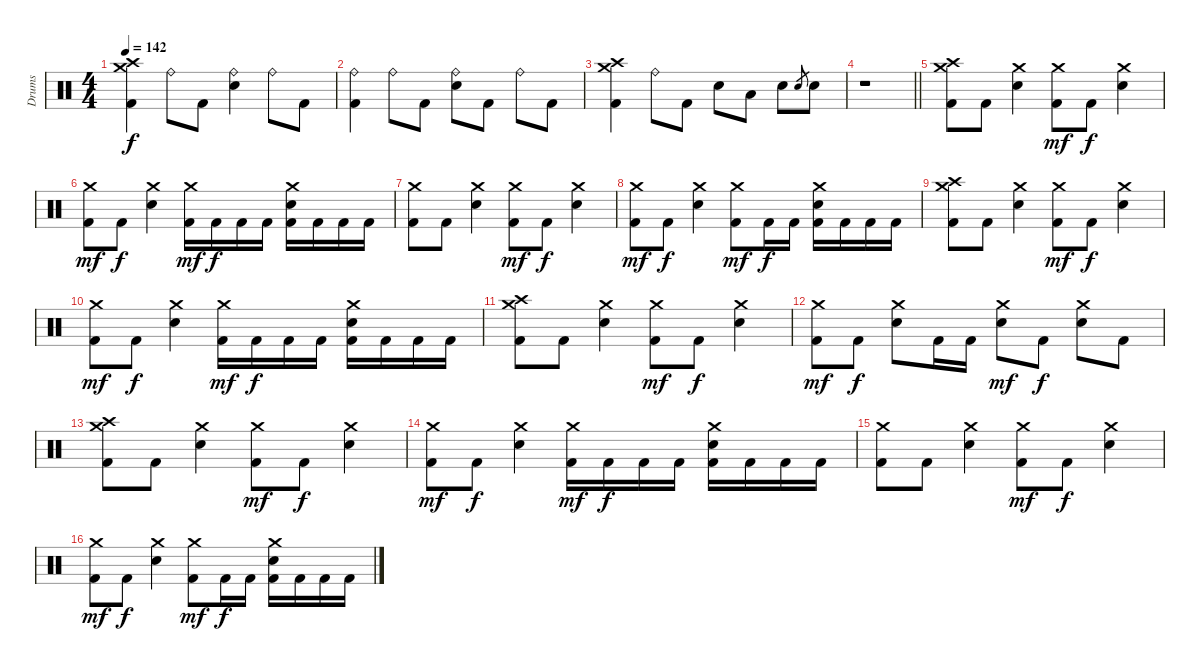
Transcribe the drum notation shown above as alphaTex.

\track ("Drums" "Drums") {instrument percussion}
\staff {score}
\articulation defaults
\ts (4 4)
\tempo 142
\clef neutral
\ks c
("Crash high (hit)" "Crash medium (hit)" "Kick (hit) 2").4{dy f} "Ride (bell)".8 "Kick (hit) 2".8 ("Ride (bell)" "Electric Snare (hit)").4 "Ride (bell)".8 "Kick (hit) 2".8 |
("Ride (bell)" "Kick (hit) 2").4 "Ride (bell)".8 "Kick (hit) 2".8 ("Ride (bell)" "Electric Snare (hit)").8 "Kick (hit) 2".8 "Ride (bell)".8 "Kick (hit) 2".8 |
("Crash high (hit)" "Crash medium (hit)" "Kick (hit) 2").4 "Ride (bell)".8 "Kick (hit) 2".8 "Electric Snare (hit)".8 "Low Tom (hit)".8 "Electric Snare (hit)".8 "Electric Snare (hit)".8{gr} "Electric Snare (hit)".8 |
\barLineRight lightlight
r.1 |
("Crash medium (hit)" "Crash high (hit)" "Kick (hit) 2").8 "Kick (hit) 2".8 ("Crash medium (hit)" "Electric Snare (hit)").4 ("Crash medium (hit)" "Kick (hit) 2").8{dy mf} "Kick (hit) 2".8{dy f} ("Crash medium (hit)" "Electric Snare (hit)").4 |
("Crash medium (hit)" "Kick (hit) 2").8{dy mf} "Kick (hit) 2".8{dy f} ("Crash medium (hit)" "Electric Snare (hit)").4 ("Crash medium (hit)" "Kick (hit) 2").16{dy mf} "Kick (hit) 2".16{dy f} "Kick (hit) 2".16 "Kick (hit) 2".16 ("Crash medium (hit)" "Electric Snare (hit)" "Kick (hit) 2").16 "Kick (hit) 2".16 "Kick (hit) 2".16 "Kick (hit) 2".16 |
("Crash medium (hit)" "Kick (hit) 2").8 "Kick (hit) 2".8 ("Crash medium (hit)" "Electric Snare (hit)").4 ("Crash medium (hit)" "Kick (hit) 2").8{dy mf} "Kick (hit) 2".8{dy f} ("Crash medium (hit)" "Electric Snare (hit)").4 |
("Crash medium (hit)" "Kick (hit) 2").8{dy mf} "Kick (hit) 2".8{dy f} ("Crash medium (hit)" "Electric Snare (hit)").4 ("Crash medium (hit)" "Kick (hit) 2").8{dy mf} "Kick (hit) 2".16{dy f} "Kick (hit) 2".16 ("Crash medium (hit)" "Electric Snare (hit)" "Kick (hit) 2").16 "Kick (hit) 2".16 "Kick (hit) 2".16 "Kick (hit) 2".16 |
("Crash medium (hit)" "Crash high (hit)" "Kick (hit) 2").8 "Kick (hit) 2".8 ("Crash medium (hit)" "Electric Snare (hit)").4 ("Crash medium (hit)" "Kick (hit) 2").8{dy mf} "Kick (hit) 2".8{dy f} ("Crash medium (hit)" "Electric Snare (hit)").4 |
("Crash medium (hit)" "Kick (hit) 2").8{dy mf} "Kick (hit) 2".8{dy f} ("Crash medium (hit)" "Electric Snare (hit)").4 ("Crash medium (hit)" "Kick (hit) 2").16{dy mf} "Kick (hit) 2".16{dy f} "Kick (hit) 2".16 "Kick (hit) 2".16 ("Crash medium (hit)" "Electric Snare (hit)" "Kick (hit) 2").16 "Kick (hit) 2".16 "Kick (hit) 2".16 "Kick (hit) 2".16 |
("Crash medium (hit)" "Crash high (hit)" "Kick (hit) 2").8 "Kick (hit) 2".8 ("Crash medium (hit)" "Electric Snare (hit)").4 ("Crash medium (hit)" "Kick (hit) 2").8{dy mf} "Kick (hit) 2".8{dy f} ("Crash medium (hit)" "Electric Snare (hit)").4 |
("Crash medium (hit)" "Kick (hit) 2").8{dy mf} "Kick (hit) 2".8{dy f} ("Crash medium (hit)" "Electric Snare (hit)").8 "Kick (hit) 2".16 "Kick (hit) 2".16 ("Crash medium (hit)" "Electric Snare (hit)").8{dy mf} "Kick (hit) 2".8{dy f} ("Crash medium (hit)" "Electric Snare (hit)").8 "Kick (hit) 2".8 |
("Crash medium (hit)" "Crash high (hit)" "Kick (hit) 2").8 "Kick (hit) 2".8 ("Crash medium (hit)" "Electric Snare (hit)").4 ("Crash medium (hit)" "Kick (hit) 2").8{dy mf} "Kick (hit) 2".8{dy f} ("Crash medium (hit)" "Electric Snare (hit)").4 |
("Crash medium (hit)" "Kick (hit) 2").8{dy mf} "Kick (hit) 2".8{dy f} ("Crash medium (hit)" "Electric Snare (hit)").4 ("Crash medium (hit)" "Kick (hit) 2").16{dy mf} "Kick (hit) 2".16{dy f} "Kick (hit) 2".16 "Kick (hit) 2".16 ("Crash medium (hit)" "Electric Snare (hit)" "Kick (hit) 2").16 "Kick (hit) 2".16 "Kick (hit) 2".16 "Kick (hit) 2".16 |
("Crash medium (hit)" "Kick (hit) 2").8 "Kick (hit) 2".8 ("Crash medium (hit)" "Electric Snare (hit)").4 ("Crash medium (hit)" "Kick (hit) 2").8{dy mf} "Kick (hit) 2".8{dy f} ("Crash medium (hit)" "Electric Snare (hit)").4 |
("Crash medium (hit)" "Kick (hit) 2").8{dy mf} "Kick (hit) 2".8{dy f} ("Crash medium (hit)" "Electric Snare (hit)").4 ("Crash medium (hit)" "Kick (hit) 2").8{dy mf} "Kick (hit) 2".16{dy f} "Kick (hit) 2".16 ("Crash medium (hit)" "Electric Snare (hit)" "Kick (hit) 2").16 "Kick (hit) 2".16 "Kick (hit) 2".16 "Kick (hit) 2".16
